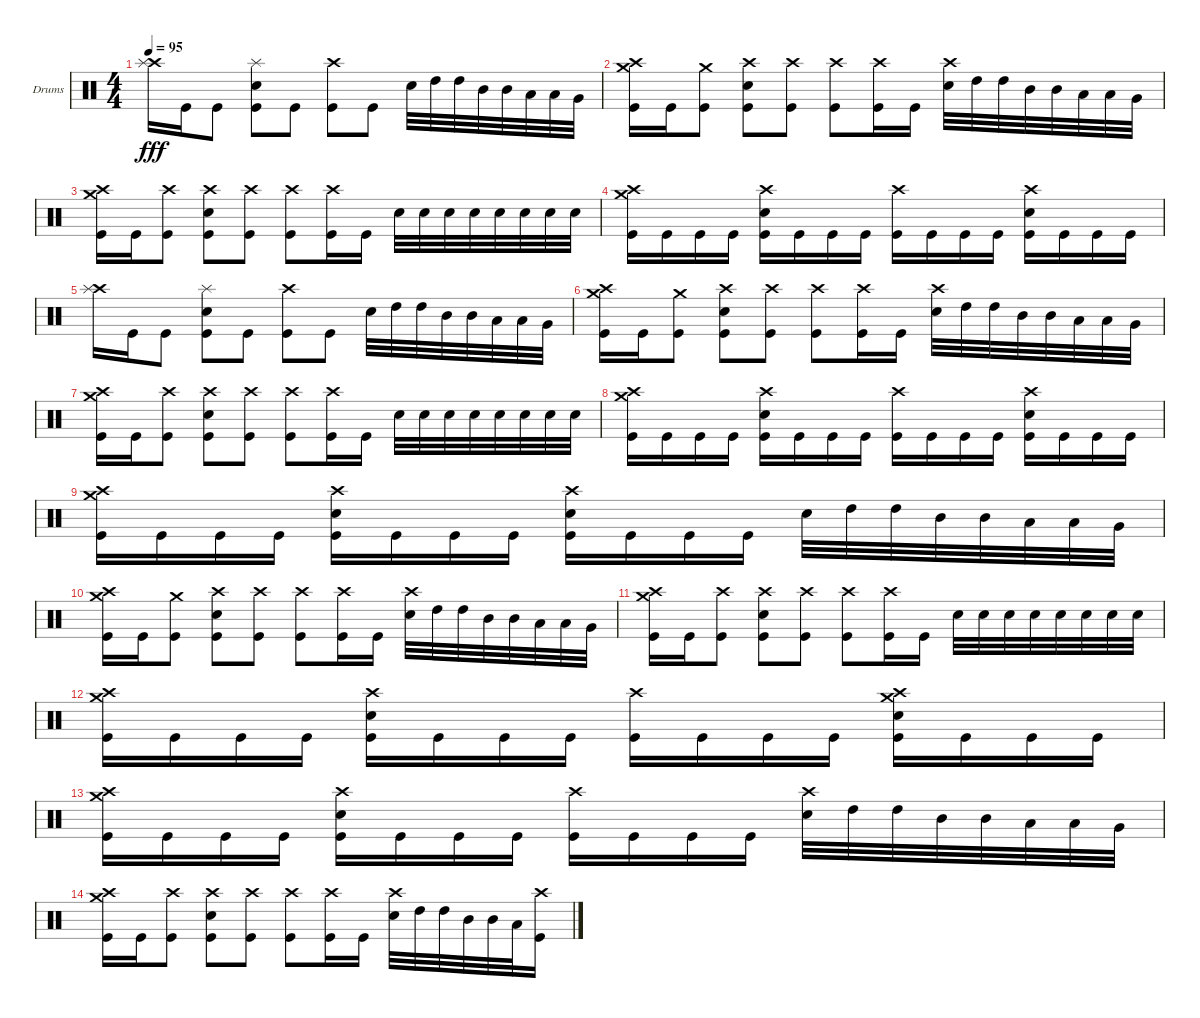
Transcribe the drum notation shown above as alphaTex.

\defaultSystemsLayout 4
\bracketExtendMode groupsimilarinstruments
\firstSystemTrackNameOrientation horizontal
\otherSystemsTrackNameOrientation horizontal
\track ("Drumkit" "Drums") {instrument percussion}
\staff {score}
\articulation defaults
\ts (4 4)
\tempo 95
\clef neutral
\ks c
("Crash high (hit)" "Splash (hit)").16{dy fff} "Kick (hit)".16 "Kick (hit)".8 ("Splash (hit)" "Snare (hit) 2" "Kick (hit)").8 "Kick (hit)".8 ("Crash high (hit)" "Kick (hit)").8 "Kick (hit)".8 "Snare (hit) 2".32 "High Tom (hit)".32 "High Tom (hit)".32 "Mid Tom (hit)".32 "Mid Tom (hit)".32 "Low Tom (hit)".32 "Low Tom (hit)".32 "Very Low Tom (hit)".32 |
("Crash high (hit)" "Crash medium (hit)" "Kick (hit)").16 "Kick (hit)".16 ("Crash medium (hit)" "Kick (hit)").8 ("Crash high (hit)" "Snare (hit) 2" "Kick (hit)").8 ("Crash high (hit)" "Kick (hit)").8 ("Crash high (hit)" "Kick (hit)").8 ("Crash high (hit)" "Kick (hit)").16 "Kick (hit)".16 ("Crash high (hit)" "Snare (hit) 2").32 "High Tom (hit)".32 "High Tom (hit)".32 "Mid Tom (hit)".32 "Mid Tom (hit)".32 "Low Tom (hit)".32 "Low Tom (hit)".32 "Very Low Tom (hit)".32 |
("Crash high (hit)" "Crash medium (hit)" "Kick (hit)").16 "Kick (hit)".16 ("Crash high (hit)" "Kick (hit)").8 ("Crash high (hit)" "Snare (hit) 2" "Kick (hit)").8 ("Crash high (hit)" "Kick (hit)").8 ("Crash high (hit)" "Kick (hit)").8 ("Crash high (hit)" "Kick (hit)").16 "Kick (hit)".16 "Snare (hit) 2".32 "Snare (hit) 2".32 "Snare (hit) 2".32 "Snare (hit) 2".32 "Snare (hit) 2".32 "Snare (hit) 2".32 "Snare (hit) 2".32 "Snare (hit) 2".32 |
("Crash high (hit)" "Crash medium (hit)" "Kick (hit)").16 "Kick (hit)".16 "Kick (hit)".16 "Kick (hit)".16 ("Crash high (hit)" "Snare (hit) 2" "Kick (hit)").16 "Kick (hit)".16 "Kick (hit)".16 "Kick (hit)".16 ("Crash high (hit)" "Kick (hit)").16 "Kick (hit)".16 "Kick (hit)".16 "Kick (hit)".16 ("Crash high (hit)" "Snare (hit) 2" "Kick (hit)").16 "Kick (hit)".16 "Kick (hit)".16 "Kick (hit)".16 |
("Crash high (hit)" "Splash (hit)").16 "Kick (hit)".16 "Kick (hit)".8 ("Splash (hit)" "Snare (hit) 2" "Kick (hit)").8 "Kick (hit)".8 ("Crash high (hit)" "Kick (hit)").8 "Kick (hit)".8 "Snare (hit) 2".32 "High Tom (hit)".32 "High Tom (hit)".32 "Mid Tom (hit)".32 "Mid Tom (hit)".32 "Low Tom (hit)".32 "Low Tom (hit)".32 "Very Low Tom (hit)".32 |
("Crash high (hit)" "Crash medium (hit)" "Kick (hit)").16 "Kick (hit)".16 ("Crash medium (hit)" "Kick (hit)").8 ("Crash high (hit)" "Snare (hit) 2" "Kick (hit)").8 ("Crash high (hit)" "Kick (hit)").8 ("Crash high (hit)" "Kick (hit)").8 ("Crash high (hit)" "Kick (hit)").16 "Kick (hit)".16 ("Crash high (hit)" "Snare (hit) 2").32 "High Tom (hit)".32 "High Tom (hit)".32 "Mid Tom (hit)".32 "Mid Tom (hit)".32 "Low Tom (hit)".32 "Low Tom (hit)".32 "Very Low Tom (hit)".32 |
("Crash high (hit)" "Crash medium (hit)" "Kick (hit)").16 "Kick (hit)".16 ("Crash high (hit)" "Kick (hit)").8 ("Crash high (hit)" "Snare (hit) 2" "Kick (hit)").8 ("Crash high (hit)" "Kick (hit)").8 ("Crash high (hit)" "Kick (hit)").8 ("Crash high (hit)" "Kick (hit)").16 "Kick (hit)".16 "Snare (hit) 2".32 "Snare (hit) 2".32 "Snare (hit) 2".32 "Snare (hit) 2".32 "Snare (hit) 2".32 "Snare (hit) 2".32 "Snare (hit) 2".32 "Snare (hit) 2".32 |
("Crash high (hit)" "Crash medium (hit)" "Kick (hit)").16 "Kick (hit)".16 "Kick (hit)".16 "Kick (hit)".16 ("Crash high (hit)" "Snare (hit) 2" "Kick (hit)").16 "Kick (hit)".16 "Kick (hit)".16 "Kick (hit)".16 ("Crash high (hit)" "Kick (hit)").16 "Kick (hit)".16 "Kick (hit)".16 "Kick (hit)".16 ("Crash high (hit)" "Snare (hit) 2" "Kick (hit)").16 "Kick (hit)".16 "Kick (hit)".16 "Kick (hit)".16 |
("Crash high (hit)" "Crash medium (hit)" "Kick (hit)").16 "Kick (hit)".16 "Kick (hit)".16 "Kick (hit)".16 ("Crash high (hit)" "Snare (hit) 2" "Kick (hit)").16 "Kick (hit)".16 "Kick (hit)".16 "Kick (hit)".16 ("Crash high (hit)" "Snare (hit) 2" "Kick (hit)").16 "Kick (hit)".16 "Kick (hit)".16 "Kick (hit)".16 "Snare (hit) 2".32 "High Tom (hit)".32 "High Tom (hit)".32 "Mid Tom (hit)".32 "Mid Tom (hit)".32 "Low Tom (hit)".32 "Low Tom (hit)".32 "Very Low Tom (hit)".32 |
("Crash high (hit)" "Crash medium (hit)" "Kick (hit)").16 "Kick (hit)".16 ("Crash medium (hit)" "Kick (hit)").8 ("Crash high (hit)" "Snare (hit) 2" "Kick (hit)").8 ("Crash high (hit)" "Kick (hit)").8 ("Crash high (hit)" "Kick (hit)").8 ("Crash high (hit)" "Kick (hit)").16 "Kick (hit)".16 ("Crash high (hit)" "Snare (hit) 2").32 "High Tom (hit)".32 "High Tom (hit)".32 "Mid Tom (hit)".32 "Mid Tom (hit)".32 "Low Tom (hit)".32 "Low Tom (hit)".32 "Very Low Tom (hit)".32 |
("Crash high (hit)" "Crash medium (hit)" "Kick (hit)").16 "Kick (hit)".16 ("Crash high (hit)" "Kick (hit)").8 ("Crash high (hit)" "Snare (hit) 2" "Kick (hit)").8 ("Crash high (hit)" "Kick (hit)").8 ("Crash high (hit)" "Kick (hit)").8 ("Crash high (hit)" "Kick (hit)").16 "Kick (hit)".16 "Snare (hit) 2".32 "Snare (hit) 2".32 "Snare (hit) 2".32 "Snare (hit) 2".32 "Snare (hit) 2".32 "Snare (hit) 2".32 "Snare (hit) 2".32 "Snare (hit) 2".32 |
("Crash high (hit)" "Crash medium (hit)" "Kick (hit)").16 "Kick (hit)".16 "Kick (hit)".16 "Kick (hit)".16 ("Crash high (hit)" "Snare (hit) 2" "Kick (hit)").16 "Kick (hit)".16 "Kick (hit)".16 "Kick (hit)".16 ("Crash high (hit)" "Kick (hit)").16 "Kick (hit)".16 "Kick (hit)".16 "Kick (hit)".16 ("Crash high (hit)" "Crash medium (hit)" "Snare (hit) 2" "Kick (hit)").16 "Kick (hit)".16 "Kick (hit)".16 "Kick (hit)".16 |
("Crash high (hit)" "Crash medium (hit)" "Kick (hit)").16 "Kick (hit)".16 "Kick (hit)".16 "Kick (hit)".16 ("Crash high (hit)" "Snare (hit) 2" "Kick (hit)").16 "Kick (hit)".16 "Kick (hit)".16 "Kick (hit)".16 ("Crash high (hit)" "Kick (hit)").16 "Kick (hit)".16 "Kick (hit)".16 "Kick (hit)".16 ("Crash high (hit)" "Snare (hit) 2").32 "High Tom (hit)".32 "High Tom (hit)".32 "Mid Tom (hit)".32 "Mid Tom (hit)".32 "Low Tom (hit)".32 "Low Tom (hit)".32 "Very Low Tom (hit)".32 |
("Crash high (hit)" "Crash medium (hit)" "Kick (hit)").16 "Kick (hit)".16 ("Crash high (hit)" "Kick (hit)").8 ("Crash high (hit)" "Snare (hit) 2" "Kick (hit)").8 ("Crash high (hit)" "Kick (hit)").8 ("Crash high (hit)" "Kick (hit)").8 ("Crash high (hit)" "Kick (hit)").16 "Kick (hit)".16 ("Crash high (hit)" "Snare (hit) 2").32 "High Tom (hit)".32 "High Tom (hit)".32 "Mid Tom (hit)".32 "Mid Tom (hit)".32 "Low Tom (hit)".32 ("Crash high (hit)" "Kick (hit)").16
